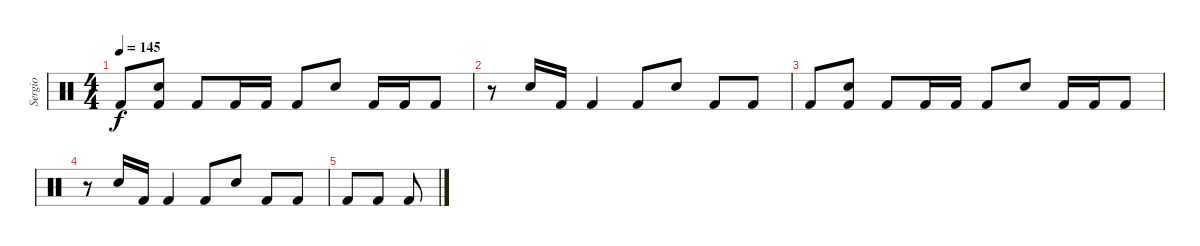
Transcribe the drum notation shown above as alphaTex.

\track ("Sergio" "Sergio") {instrument percussion}
\staff {score}
\articulation defaults
\ts (4 4)
\tempo 145
\clef neutral
\ks c "Kick (hit) 2".8{dy f}
("Electric Snare (hit)" "Kick (hit) 2").8 "Kick (hit) 2".8 "Kick (hit) 2".16 "Kick (hit) 2".16 "Kick (hit) 2".8 "Electric Snare (hit)".8 "Kick (hit) 2".16 "Kick (hit) 2".16 "Kick (hit) 2".8 |
r.8 "Electric Snare (hit)".16 "Kick (hit) 2".16 "Kick (hit) 2".4 "Kick (hit) 2".8 "Electric Snare (hit)".8 "Kick (hit) 2".8 "Kick (hit) 2".8 |
"Kick (hit) 2".8 ("Electric Snare (hit)" "Kick (hit) 2").8 "Kick (hit) 2".8 "Kick (hit) 2".16 "Kick (hit) 2".16 "Kick (hit) 2".8 "Electric Snare (hit)".8 "Kick (hit) 2".16 "Kick (hit) 2".16 "Kick (hit) 2".8 |
r.8 "Electric Snare (hit)".16 "Kick (hit) 2".16 "Kick (hit) 2".4 "Kick (hit) 2".8 "Electric Snare (hit)".8 "Kick (hit) 2".8 "Kick (hit) 2".8 |
"Kick (hit) 2".8 "Kick (hit) 2".8 "Kick (hit) 2".8
